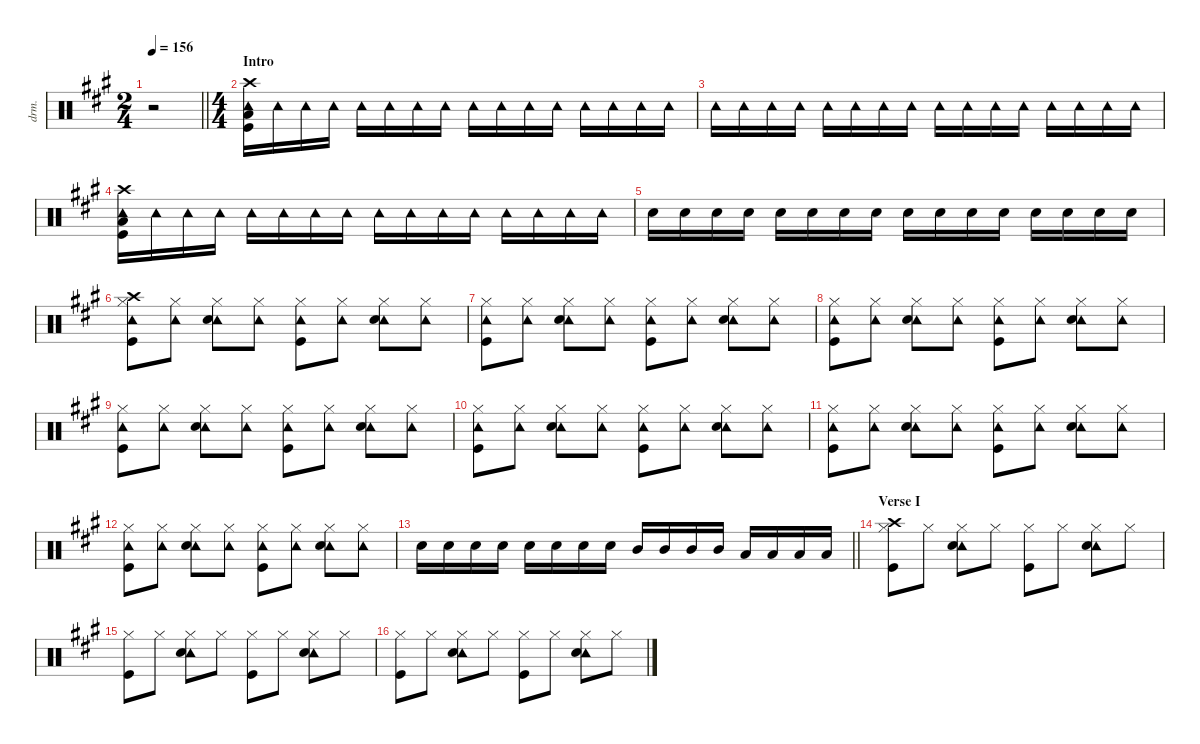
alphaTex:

\defaultSystemsLayout 4
\hideDynamics
\bracketExtendMode nobrackets
\otherSystemsTrackNameOrientation horizontal
\track ("Drums" "drm.") {instrument percussion}
\staff {score}
\articulation defaults
\ts (2 4)
\beaming (8 2 2)
\tempo 156
\clef neutral
\barLineRight lightlight
\ks a
r.2{dy f beam Down} |
\ts (4 4)
\beaming (8 2 2 2 2)
\section ("" "Intro")
("Tambourine (hit)"{acc forcenatural} "Crash high (hit)"{acc forcenatural} "Low Floor Tom (hit)"{acc forcenatural} "Kick (hit)"{acc forcenatural}).16{beam Down} "Tambourine (hit)"{acc forcenatural}.16{beam Down} "Tambourine (hit)"{acc forcenatural}.16{beam Down} "Tambourine (hit)"{acc forcenatural}.16{beam Down} "Tambourine (hit)"{acc forcenatural}.16{beam Down} "Tambourine (hit)"{acc forcenatural}.16{beam Down} "Tambourine (hit)"{acc forcenatural}.16{beam Down} "Tambourine (hit)"{acc forcenatural}.16{beam Down} "Tambourine (hit)"{acc forcenatural}.16{beam Down} "Tambourine (hit)"{acc forcenatural}.16{beam Down} "Tambourine (hit)"{acc forcenatural}.16{beam Down} "Tambourine (hit)"{acc forcenatural}.16{beam Down} "Tambourine (hit)"{acc forcenatural}.16{beam Down} "Tambourine (hit)"{acc forcenatural}.16{beam Down} "Tambourine (hit)"{acc forcenatural}.16{beam Down} "Tambourine (hit)"{acc forcenatural}.16{beam Down} |
"Tambourine (hit)"{acc forcenatural}.16{beam Down} "Tambourine (hit)"{acc forcenatural}.16{beam Down} "Tambourine (hit)"{acc forcenatural}.16{beam Down} "Tambourine (hit)"{acc forcenatural}.16{beam Down} "Tambourine (hit)"{acc forcenatural}.16{beam Down} "Tambourine (hit)"{acc forcenatural}.16{beam Down} "Tambourine (hit)"{acc forcenatural}.16{beam Down} "Tambourine (hit)"{acc forcenatural}.16{beam Down} "Tambourine (hit)"{acc forcenatural}.16{beam Down} "Tambourine (hit)"{acc forcenatural}.16{beam Down} "Tambourine (hit)"{acc forcenatural}.16{beam Down} "Tambourine (hit)"{acc forcenatural}.16{beam Down} "Tambourine (hit)"{acc forcenatural}.16{beam Down} "Tambourine (hit)"{acc forcenatural}.16{beam Down} "Tambourine (hit)"{acc forcenatural}.16{beam Down} "Tambourine (hit)"{acc forcenatural}.16{beam Down} |
("Tambourine (hit)"{acc forcenatural} "Crash high (hit)"{acc forcenatural} "Low Floor Tom (hit)"{acc forcenatural} "Kick (hit)"{acc forcenatural}).16{beam Down} "Tambourine (hit)"{acc forcenatural}.16{beam Down} "Tambourine (hit)"{acc forcenatural}.16{beam Down} "Tambourine (hit)"{acc forcenatural}.16{beam Down} "Tambourine (hit)"{acc forcenatural}.16{beam Down} "Tambourine (hit)"{acc forcenatural}.16{beam Down} "Tambourine (hit)"{acc forcenatural}.16{beam Down} "Tambourine (hit)"{acc forcenatural}.16{beam Down} "Tambourine (hit)"{acc forcenatural}.16{beam Down} "Tambourine (hit)"{acc forcenatural}.16{beam Down} "Tambourine (hit)"{acc forcenatural}.16{beam Down} "Tambourine (hit)"{acc forcenatural}.16{beam Down} "Tambourine (hit)"{acc forcenatural}.16{beam Down} "Tambourine (hit)"{acc forcenatural}.16{beam Down} "Tambourine (hit)"{acc forcenatural}.16{beam Down} "Tambourine (hit)"{acc forcenatural}.16{beam Down} |
"Snare (hit) 2"{acc forcenatural}.16{beam Down} "Snare (hit) 2"{acc forcenatural}.16{beam Down} "Snare (hit) 2"{acc forcenatural}.16{beam Down} "Snare (hit) 2"{acc forcenatural}.16{beam Down} "Snare (hit) 2"{acc forcenatural}.16{beam Down} "Snare (hit) 2"{acc forcenatural}.16{beam Down} "Snare (hit) 2"{acc forcenatural}.16{beam Down} "Snare (hit) 2"{acc forcenatural}.16{beam Down} "Snare (hit) 2"{acc forcenatural}.16{beam Down} "Snare (hit) 2"{acc forcenatural}.16{beam Down} "Snare (hit) 2"{acc forcenatural}.16{beam Down} "Snare (hit) 2"{acc forcenatural}.16{beam Down} "Snare (hit) 2"{acc forcenatural}.16{beam Down} "Snare (hit) 2"{acc forcenatural}.16{beam Down} "Snare (hit) 2"{acc forcenatural}.16{beam Down} "Snare (hit) 2"{acc forcenatural}.16{beam Down} |
("Hi-Hat (closed)"{acc forcenatural} "Crash high (hit)"{acc forcenatural} "Tambourine (hit)"{acc forcenatural} "Kick (hit)"{acc forcenatural}).8{beam Down} ("Hi-Hat (closed)"{acc forcenatural} "Tambourine (hit)"{acc forcenatural}).8{beam Down} ("Hi-Hat (closed)"{acc forcenatural} "Tambourine (hit)"{acc forcenatural} "Snare (hit) 2"{acc forcenatural}).8{beam Down} ("Hi-Hat (closed)"{acc forcenatural} "Tambourine (hit)"{acc forcenatural}).8{beam Down} ("Hi-Hat (closed)"{acc forcenatural} "Tambourine (hit)"{acc forcenatural} "Kick (hit)"{acc forcenatural}).8{beam Down} ("Hi-Hat (closed)"{acc forcenatural} "Tambourine (hit)"{acc forcenatural}).8{beam Down} ("Hi-Hat (closed)"{acc forcenatural} "Tambourine (hit)"{acc forcenatural} "Snare (hit) 2"{acc forcenatural}).8{beam Down} ("Hi-Hat (closed)"{acc forcenatural} "Tambourine (hit)"{acc forcenatural}).8{beam Down} |
("Hi-Hat (closed)"{acc forcenatural} "Tambourine (hit)"{acc forcenatural} "Kick (hit)"{acc forcenatural}).8{beam Down} ("Hi-Hat (closed)"{acc forcenatural} "Tambourine (hit)"{acc forcenatural}).8{beam Down} ("Hi-Hat (closed)"{acc forcenatural} "Tambourine (hit)"{acc forcenatural} "Snare (hit) 2"{acc forcenatural}).8{beam Down} ("Hi-Hat (closed)"{acc forcenatural} "Tambourine (hit)"{acc forcenatural}).8{beam Down} ("Hi-Hat (closed)"{acc forcenatural} "Tambourine (hit)"{acc forcenatural} "Kick (hit)"{acc forcenatural}).8{beam Down} ("Hi-Hat (closed)"{acc forcenatural} "Tambourine (hit)"{acc forcenatural}).8{beam Down} ("Hi-Hat (closed)"{acc forcenatural} "Tambourine (hit)"{acc forcenatural} "Snare (hit) 2"{acc forcenatural}).8{beam Down} ("Hi-Hat (closed)"{acc forcenatural} "Tambourine (hit)"{acc forcenatural}).8{beam Down} |
("Hi-Hat (closed)"{acc forcenatural} "Tambourine (hit)"{acc forcenatural} "Kick (hit)"{acc forcenatural}).8{beam Down} ("Hi-Hat (closed)"{acc forcenatural} "Tambourine (hit)"{acc forcenatural}).8{beam Down} ("Hi-Hat (closed)"{acc forcenatural} "Tambourine (hit)"{acc forcenatural} "Snare (hit) 2"{acc forcenatural}).8{beam Down} ("Hi-Hat (closed)"{acc forcenatural} "Tambourine (hit)"{acc forcenatural}).8{beam Down} ("Hi-Hat (closed)"{acc forcenatural} "Tambourine (hit)"{acc forcenatural} "Kick (hit)"{acc forcenatural}).8{beam Down} ("Hi-Hat (closed)"{acc forcenatural} "Tambourine (hit)"{acc forcenatural}).8{beam Down} ("Hi-Hat (closed)"{acc forcenatural} "Tambourine (hit)"{acc forcenatural} "Snare (hit) 2"{acc forcenatural}).8{beam Down} ("Hi-Hat (closed)"{acc forcenatural} "Tambourine (hit)"{acc forcenatural}).8{beam Down} |
("Hi-Hat (closed)"{acc forcenatural} "Tambourine (hit)"{acc forcenatural} "Kick (hit)"{acc forcenatural}).8{beam Down} ("Hi-Hat (closed)"{acc forcenatural} "Tambourine (hit)"{acc forcenatural}).8{beam Down} ("Hi-Hat (closed)"{acc forcenatural} "Tambourine (hit)"{acc forcenatural} "Snare (hit) 2"{acc forcenatural}).8{beam Down} ("Hi-Hat (closed)"{acc forcenatural} "Tambourine (hit)"{acc forcenatural}).8{beam Down} ("Hi-Hat (closed)"{acc forcenatural} "Tambourine (hit)"{acc forcenatural} "Kick (hit)"{acc forcenatural}).8{beam Down} ("Hi-Hat (closed)"{acc forcenatural} "Tambourine (hit)"{acc forcenatural}).8{beam Down} ("Hi-Hat (closed)"{acc forcenatural} "Tambourine (hit)"{acc forcenatural} "Snare (hit) 2"{acc forcenatural}).8{beam Down} ("Hi-Hat (closed)"{acc forcenatural} "Tambourine (hit)"{acc forcenatural}).8{beam Down} |
("Hi-Hat (closed)"{acc forcenatural} "Tambourine (hit)"{acc forcenatural} "Kick (hit)"{acc forcenatural}).8{beam Down} ("Hi-Hat (closed)"{acc forcenatural} "Tambourine (hit)"{acc forcenatural}).8{beam Down} ("Hi-Hat (closed)"{acc forcenatural} "Tambourine (hit)"{acc forcenatural} "Snare (hit) 2"{acc forcenatural}).8{beam Down} ("Hi-Hat (closed)"{acc forcenatural} "Tambourine (hit)"{acc forcenatural}).8{beam Down} ("Hi-Hat (closed)"{acc forcenatural} "Tambourine (hit)"{acc forcenatural} "Kick (hit)"{acc forcenatural}).8{beam Down} ("Hi-Hat (closed)"{acc forcenatural} "Tambourine (hit)"{acc forcenatural}).8{beam Down} ("Hi-Hat (closed)"{acc forcenatural} "Tambourine (hit)"{acc forcenatural} "Snare (hit) 2"{acc forcenatural}).8{beam Down} ("Hi-Hat (closed)"{acc forcenatural} "Tambourine (hit)"{acc forcenatural}).8{beam Down} |
("Hi-Hat (closed)"{acc forcenatural} "Tambourine (hit)"{acc forcenatural} "Kick (hit)"{acc forcenatural}).8{beam Down} ("Hi-Hat (closed)"{acc forcenatural} "Tambourine (hit)"{acc forcenatural}).8{beam Down} ("Hi-Hat (closed)"{acc forcenatural} "Tambourine (hit)"{acc forcenatural} "Snare (hit) 2"{acc forcenatural}).8{beam Down} ("Hi-Hat (closed)"{acc forcenatural} "Tambourine (hit)"{acc forcenatural}).8{beam Down} ("Hi-Hat (closed)"{acc forcenatural} "Tambourine (hit)"{acc forcenatural} "Kick (hit)"{acc forcenatural}).8{beam Down} ("Hi-Hat (closed)"{acc forcenatural} "Tambourine (hit)"{acc forcenatural}).8{beam Down} ("Hi-Hat (closed)"{acc forcenatural} "Tambourine (hit)"{acc forcenatural} "Snare (hit) 2"{acc forcenatural}).8{beam Down} ("Hi-Hat (closed)"{acc forcenatural} "Tambourine (hit)"{acc forcenatural}).8{beam Down} |
("Hi-Hat (closed)"{acc forcenatural} "Tambourine (hit)"{acc forcenatural} "Kick (hit)"{acc forcenatural}).8{beam Down} ("Hi-Hat (closed)"{acc forcenatural} "Tambourine (hit)"{acc forcenatural}).8{beam Down} ("Hi-Hat (closed)"{acc forcenatural} "Tambourine (hit)"{acc forcenatural} "Snare (hit) 2"{acc forcenatural}).8{beam Down} ("Hi-Hat (closed)"{acc forcenatural} "Tambourine (hit)"{acc forcenatural}).8{beam Down} ("Hi-Hat (closed)"{acc forcenatural} "Tambourine (hit)"{acc forcenatural} "Kick (hit)"{acc forcenatural}).8{beam Down} ("Hi-Hat (closed)"{acc forcenatural} "Tambourine (hit)"{acc forcenatural}).8{beam Down} ("Hi-Hat (closed)"{acc forcenatural} "Tambourine (hit)"{acc forcenatural} "Snare (hit) 2"{acc forcenatural}).8{beam Down} ("Hi-Hat (closed)"{acc forcenatural} "Tambourine (hit)"{acc forcenatural}).8{beam Down} |
\barLineRight lightlight "Snare (hit) 2"{acc forcenatural}.16{beam Down} "Snare (hit) 2"{acc forcenatural}.16{beam Down} "Snare (hit) 2"{acc forcenatural}.16{beam Down} "Snare (hit) 2"{acc forcenatural}.16{beam Down} "Snare (hit) 2"{acc forcenatural}.16{beam Down} "Snare (hit) 2"{acc forcenatural}.16{beam Down} "Snare (hit) 2"{acc forcenatural}.16{beam Down} "Snare (hit) 2"{acc forcenatural}.16{beam Down} "Mid Tom (hit)"{acc forcenatural}.16{beam Up} "Mid Tom (hit)"{acc forcenatural}.16{beam Up} "Mid Tom (hit)"{acc forcenatural}.16{beam Up} "Mid Tom (hit)"{acc forcenatural}.16{beam Up} "Low Tom (hit)"{acc forcenatural}.16{beam Up} "Low Tom (hit)"{acc forcenatural}.16{beam Up} "Low Tom (hit)"{acc forcenatural}.16{beam Up} "Low Tom (hit)"{acc forcenatural}.16{beam Up}
|
\section ("" "Verse I")
("Hi-Hat (closed)"{acc forcenatural} "Crash high (hit)"{acc forcenatural} "Kick (hit)"{acc forcenatural}).8{beam Down} "Hi-Hat (closed)"{acc forcenatural}.8{beam Down} ("Hi-Hat (closed)"{acc forcenatural} "Tambourine (hit)"{acc forcenatural} "Snare (hit) 2"{acc forcenatural}).8{beam Down} "Hi-Hat (closed)"{acc forcenatural}.8{beam Down} ("Hi-Hat (closed)"{acc forcenatural} "Kick (hit)"{acc forcenatural}).8{beam Down} "Hi-Hat (closed)"{acc forcenatural}.8{beam Down} ("Hi-Hat (closed)"{acc forcenatural} "Tambourine (hit)"{acc forcenatural} "Snare (hit) 2"{acc forcenatural}).8{beam Down} "Hi-Hat (closed)"{acc forcenatural}.8{beam Down} |
("Hi-Hat (closed)"{acc forcenatural} "Kick (hit)"{acc forcenatural}).8{beam Down} "Hi-Hat (closed)"{acc forcenatural}.8{beam Down} ("Hi-Hat (closed)"{acc forcenatural} "Tambourine (hit)"{acc forcenatural} "Snare (hit) 2"{acc forcenatural}).8{beam Down} "Hi-Hat (closed)"{acc forcenatural}.8{beam Down} ("Hi-Hat (closed)"{acc forcenatural} "Kick (hit)"{acc forcenatural}).8{beam Down} "Hi-Hat (closed)"{acc forcenatural}.8{beam Down} ("Hi-Hat (closed)"{acc forcenatural} "Tambourine (hit)"{acc forcenatural} "Snare (hit) 2"{acc forcenatural}).8{beam Down} "Hi-Hat (closed)"{acc forcenatural}.8{beam Down} |
("Hi-Hat (closed)"{acc forcenatural} "Kick (hit)"{acc forcenatural}).8{beam Down} "Hi-Hat (closed)"{acc forcenatural}.8{beam Down} ("Hi-Hat (closed)"{acc forcenatural} "Tambourine (hit)"{acc forcenatural} "Snare (hit) 2"{acc forcenatural}).8{beam Down} "Hi-Hat (closed)"{acc forcenatural}.8{beam Down} ("Hi-Hat (closed)"{acc forcenatural} "Kick (hit)"{acc forcenatural}).8{beam Down} "Hi-Hat (closed)"{acc forcenatural}.8{beam Down} ("Hi-Hat (closed)"{acc forcenatural} "Tambourine (hit)"{acc forcenatural} "Snare (hit) 2"{acc forcenatural}).8{beam Down} "Hi-Hat (closed)"{acc forcenatural}.8{beam Down}
